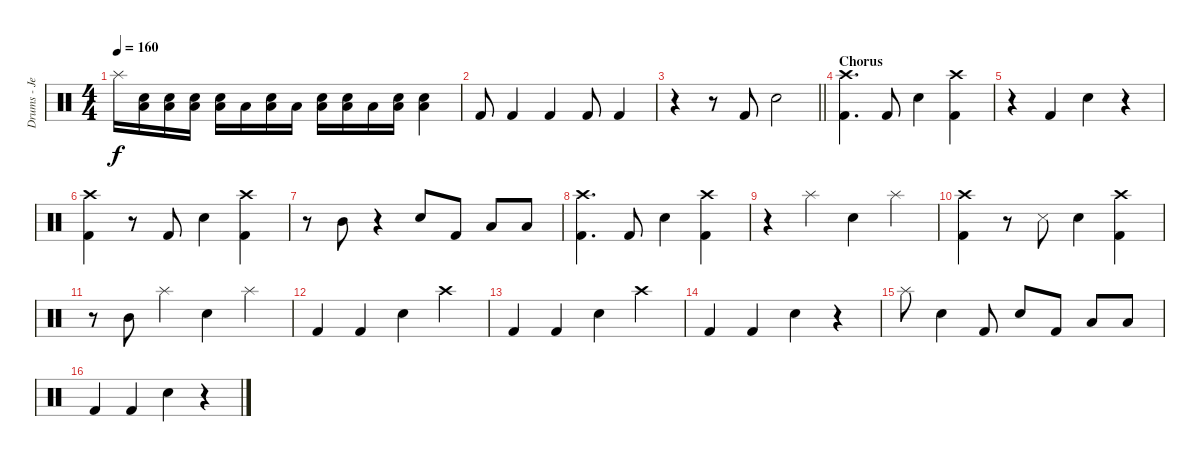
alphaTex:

\track ("Drums - Jen Ledger" "Drums - Je") {instrument percussion}
\staff {score}
\articulation defaults
\ts (4 4)
\tempo 160
\clef neutral
\ks c "Splash (hit)".16{dy f}
("Low Floor Tom (hit)" "Snare (hit) 2").16 ("Low Floor Tom (hit)" "Snare (hit) 2").16 ("Low Floor Tom (hit)" "Snare (hit) 2").16 ("Low Floor Tom (hit)" "Snare (hit) 2").16 "Low Floor Tom (hit)".16 ("Low Floor Tom (hit)" "Snare (hit) 2").16 "Low Floor Tom (hit)".16 ("Low Floor Tom (hit)" "Snare (hit) 2").16 ("Low Floor Tom (hit)" "Snare (hit) 2").16 "Low Floor Tom (hit)".16 ("Low Floor Tom (hit)" "Snare (hit) 2").16 ("Low Floor Tom (hit)" "Snare (hit) 2").4 |
"Kick (hit) 2".8 "Kick (hit) 2".4 "Kick (hit) 2".4 "Kick (hit) 2".8 "Kick (hit) 2".4 |
\barLineRight lightlight
r.4 r.8 "Kick (hit) 2".8 "Snare (hit) 2".2 |
\section ("" "Chorus")
("Kick (hit) 2" "Crash high (hit)").4{d} "Kick (hit) 2".8 "Snare (hit) 2".4 ("Kick (hit) 2" "Crash high (hit)").4 |
r.4 "Kick (hit) 2".4 "Snare (hit) 2".4 r.4 |
("Kick (hit) 2" "Crash high (hit)").4 r.8 "Kick (hit) 2".8 "Snare (hit) 2".4 ("Kick (hit) 2" "Crash high (hit)").4 |
r.8 "Mid Tom (hit)".8 r.4 "Snare (hit) 2".8 "Kick (hit) 2".8 "Low Floor Tom (hit)".8 "Low Floor Tom (hit)".8 |
("Kick (hit) 2" "Crash high (hit)").4{d} "Kick (hit) 2".8 "Snare (hit) 2".4 ("Kick (hit) 2" "Crash high (hit)").4 |
r.4 "Splash (hit)".4 "Snare (hit) 2".4 "Splash (hit)".4 |
("Kick (hit) 2" "Crash high (hit)").4 r.8 "Snare (side stick) 3".8 "Snare (hit) 2".4 ("Kick (hit) 2" "Crash high (hit)").4 |
r.8 "Mid Tom (hit)".8 "Splash (hit)".4 "Snare (hit) 2".4 "Splash (hit)".4 |
"Kick (hit) 2".4 "Kick (hit) 2".4 "Snare (hit) 2".4 "Crash high (hit)".4 |
"Kick (hit) 2".4 "Kick (hit) 2".4 "Snare (hit) 2".4 "Crash high (hit)".4 |
"Kick (hit) 2".4 "Kick (hit) 2".4 "Snare (hit) 2".4 r.4 |
"Splash (hit)".8 "Snare (hit) 2".4 "Kick (hit) 2".8 "Snare (hit) 2".8 "Kick (hit) 2".8 "Low Floor Tom (hit)".8 "Low Floor Tom (hit)".8 |
"Kick (hit) 2".4 "Kick (hit) 2".4 "Snare (hit) 2".4 r.4
